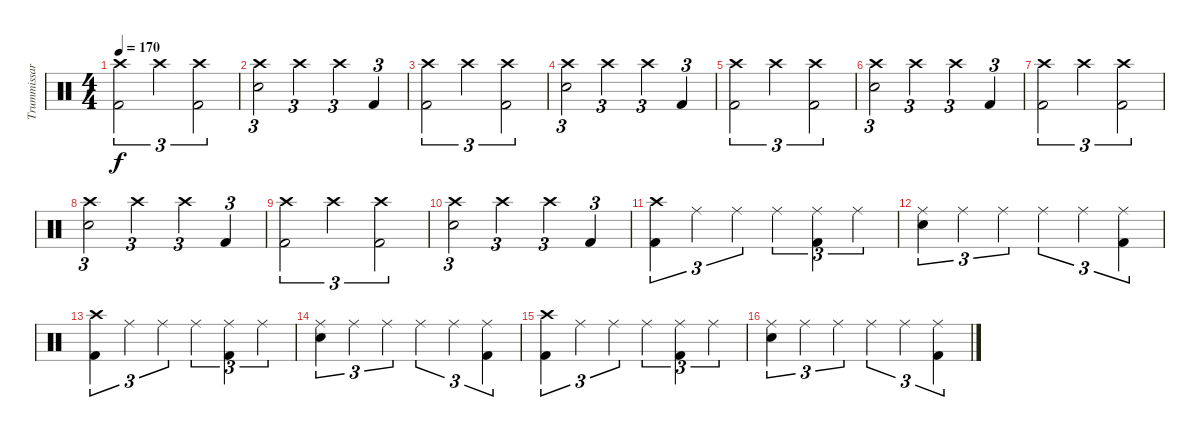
\track ("Trummissar!!" "Trummissar") {instrument percussion}
\staff {score}
\articulation defaults
\ts (4 4)
\tempo 170
\clef neutral
\ks c
("Crash high (hit)" "Kick (hit) 2").2{tu (3 2) dy f} "Crash high (hit)".2{tu (3 2)} ("Crash high (hit)" "Kick (hit) 2").2{tu (3 2)} |
("Crash high (hit)" "Electric Snare (hit)").2{tu (3 2)} "Crash high (hit)".2{tu (3 2)} "Crash high (hit)".4{tu (3 2)} "Kick (hit) 2".4{tu (3 2)} |
("Crash high (hit)" "Kick (hit) 2").2{tu (3 2)} "Crash high (hit)".2{tu (3 2)} ("Crash high (hit)" "Kick (hit) 2").2{tu (3 2)} |
("Crash high (hit)" "Electric Snare (hit)").2{tu (3 2)} "Crash high (hit)".2{tu (3 2)} "Crash high (hit)".4{tu (3 2)} "Kick (hit) 2".4{tu (3 2)} |
("Crash high (hit)" "Kick (hit) 2").2{tu (3 2)} "Crash high (hit)".2{tu (3 2)} ("Crash high (hit)" "Kick (hit) 2").2{tu (3 2)} |
("Crash high (hit)" "Electric Snare (hit)").2{tu (3 2)} "Crash high (hit)".2{tu (3 2)} "Crash high (hit)".4{tu (3 2)} "Kick (hit) 2".4{tu (3 2)} |
("Crash high (hit)" "Kick (hit) 2").2{tu (3 2)} "Crash high (hit)".2{tu (3 2)} ("Crash high (hit)" "Kick (hit) 2").2{tu (3 2)} |
("Crash high (hit)" "Electric Snare (hit)").2{tu (3 2)} "Crash high (hit)".2{tu (3 2)} "Crash high (hit)".4{tu (3 2)} "Kick (hit) 2".4{tu (3 2)} |
("Crash high (hit)" "Kick (hit) 2").2{tu (3 2)} "Crash high (hit)".2{tu (3 2)} ("Crash high (hit)" "Kick (hit) 2").2{tu (3 2)} |
("Crash high (hit)" "Electric Snare (hit)").2{tu (3 2)} "Crash high (hit)".2{tu (3 2)} "Crash high (hit)".4{tu (3 2)} "Kick (hit) 2".4{tu (3 2)} |
("Crash high (hit)" "Kick (hit) 2").4{tu (3 2)} "Ride (middle)".4{tu (3 2)} "Ride (middle)".4{tu (3 2)} "Ride (middle)".4{tu (3 2)} ("Ride (middle)" "Kick (hit) 2").4{tu (3 2)} "Ride (middle)".4{tu (3 2)} |
("Ride (middle)" "Electric Snare (hit)").4{tu (3 2)} "Ride (middle)".4{tu (3 2)} "Ride (middle)".4{tu (3 2)} "Ride (middle)".4{tu (3 2)} "Ride (middle)".4{tu (3 2)} ("Ride (middle)" "Kick (hit) 2").4{tu (3 2)} |
("Crash high (hit)" "Kick (hit) 2").4{tu (3 2)} "Ride (middle)".4{tu (3 2)} "Ride (middle)".4{tu (3 2)} "Ride (middle)".4{tu (3 2)} ("Ride (middle)" "Kick (hit) 2").4{tu (3 2)} "Ride (middle)".4{tu (3 2)} |
("Ride (middle)" "Electric Snare (hit)").4{tu (3 2)} "Ride (middle)".4{tu (3 2)} "Ride (middle)".4{tu (3 2)} "Ride (middle)".4{tu (3 2)} "Ride (middle)".4{tu (3 2)} ("Ride (middle)" "Kick (hit) 2").4{tu (3 2)} |
("Crash high (hit)" "Kick (hit) 2").4{tu (3 2)} "Ride (middle)".4{tu (3 2)} "Ride (middle)".4{tu (3 2)} "Ride (middle)".4{tu (3 2)} ("Ride (middle)" "Kick (hit) 2").4{tu (3 2)} "Ride (middle)".4{tu (3 2)} |
("Ride (middle)" "Electric Snare (hit)").4{tu (3 2)} "Ride (middle)".4{tu (3 2)} "Ride (middle)".4{tu (3 2)} "Ride (middle)".4{tu (3 2)} "Ride (middle)".4{tu (3 2)} ("Ride (middle)" "Kick (hit) 2").4{tu (3 2)}
